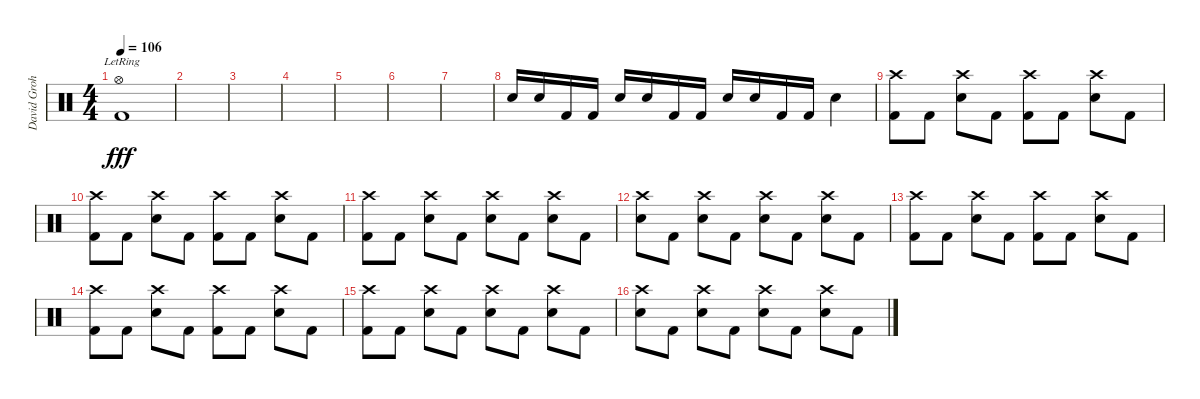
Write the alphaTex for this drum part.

\track ("David Grohl 2 Crash Style !!" "David Groh") {instrument percussion}
\staff {score}
\articulation defaults
\ts (4 4)
\tempo 106
\clef neutral
\ks c
("Hi-Hat (open)"{lr} "Kick (hit) 2").1{dy fff} |
|
|
|
|
|
|
"Snare (hit) 2".16 "Snare (hit) 2".16 "Kick (hit) 2".16 "Kick (hit) 2".16 "Snare (hit) 2".16 "Snare (hit) 2".16 "Kick (hit) 2".16 "Kick (hit) 2".16 "Snare (hit) 2".16 "Snare (hit) 2".16 "Kick (hit) 2".16 "Kick (hit) 2".16 "Snare (hit) 2".4 |
("Crash high (hit)" "Kick (hit) 2").8 "Kick (hit) 2".8 ("Crash high (hit)" "Snare (hit) 2").8 "Kick (hit) 2".8 ("Crash high (hit)" "Kick (hit) 2").8 "Kick (hit) 2".8 ("Crash high (hit)" "Snare (hit) 2").8 "Kick (hit) 2".8 |
("Crash high (hit)" "Kick (hit) 2").8 "Kick (hit) 2".8 ("Crash high (hit)" "Snare (hit) 2").8 "Kick (hit) 2".8 ("Crash high (hit)" "Kick (hit) 2").8 "Kick (hit) 2".8 ("Crash high (hit)" "Snare (hit) 2").8 "Kick (hit) 2".8 |
("Crash high (hit)" "Kick (hit) 2").8 "Kick (hit) 2".8 ("Crash high (hit)" "Snare (hit) 2").8 "Kick (hit) 2".8 ("Crash high (hit)" "Snare (hit) 2").8 "Kick (hit) 2".8 ("Crash high (hit)" "Snare (hit) 2").8 "Kick (hit) 2".8 |
("Crash high (hit)" "Snare (hit) 2").8 "Kick (hit) 2".8 ("Crash high (hit)" "Snare (hit) 2").8 "Kick (hit) 2".8 ("Crash high (hit)" "Snare (hit) 2").8 "Kick (hit) 2".8 ("Crash high (hit)" "Snare (hit) 2").8 "Kick (hit) 2".8 |
("Crash high (hit)" "Kick (hit) 2").8 "Kick (hit) 2".8 ("Crash high (hit)" "Snare (hit) 2").8 "Kick (hit) 2".8 ("Crash high (hit)" "Kick (hit) 2").8 "Kick (hit) 2".8 ("Crash high (hit)" "Snare (hit) 2").8 "Kick (hit) 2".8 |
("Crash high (hit)" "Kick (hit) 2").8 "Kick (hit) 2".8 ("Crash high (hit)" "Snare (hit) 2").8 "Kick (hit) 2".8 ("Crash high (hit)" "Kick (hit) 2").8 "Kick (hit) 2".8 ("Crash high (hit)" "Snare (hit) 2").8 "Kick (hit) 2".8 |
("Crash high (hit)" "Kick (hit) 2").8 "Kick (hit) 2".8 ("Crash high (hit)" "Snare (hit) 2").8 "Kick (hit) 2".8 ("Crash high (hit)" "Snare (hit) 2").8 "Kick (hit) 2".8 ("Crash high (hit)" "Snare (hit) 2").8 "Kick (hit) 2".8 |
("Crash high (hit)" "Snare (hit) 2").8 "Kick (hit) 2".8 ("Crash high (hit)" "Snare (hit) 2").8 "Kick (hit) 2".8 ("Crash high (hit)" "Snare (hit) 2").8 "Kick (hit) 2".8 ("Crash high (hit)" "Snare (hit) 2").8 "Kick (hit) 2".8
